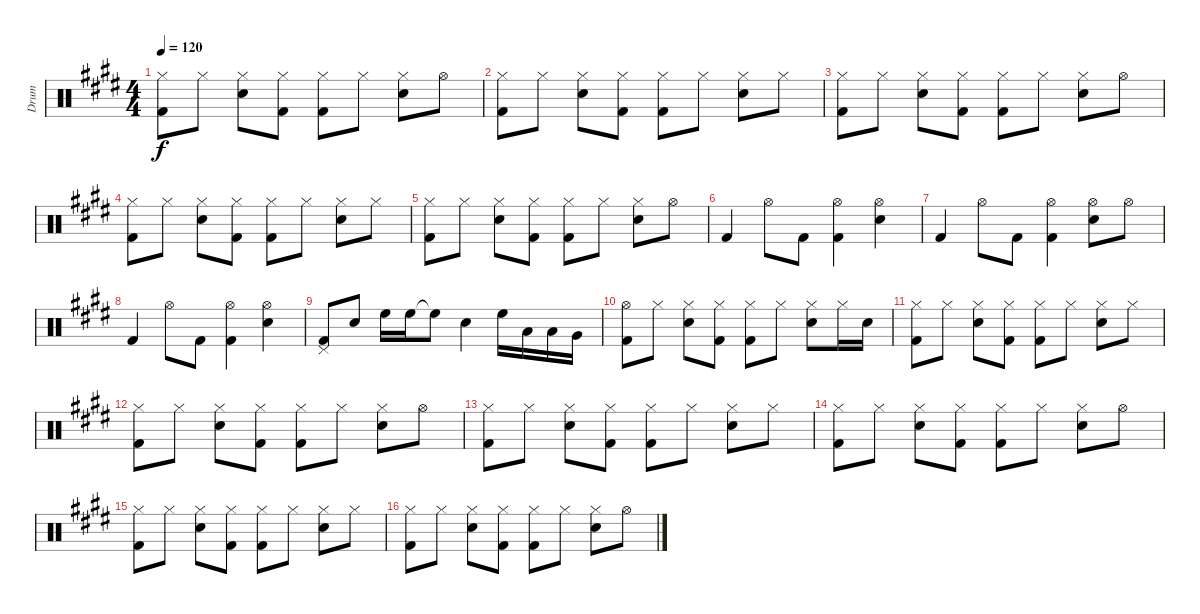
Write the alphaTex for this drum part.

\track ("Drum" "Drum") {instrument percussion}
\staff {score}
\articulation defaults
\ts (4 4)
\tempo 120
\clef neutral
\ks e
("Hi-Hat (closed)" "Kick (hit) 2").8{dy f} "Hi-Hat (closed)".8 ("Hi-Hat (closed)" "Snare (hit) 2").8 ("Hi-Hat (closed)" "Kick (hit) 2").8 ("Hi-Hat (closed)" "Kick (hit) 2").8 "Hi-Hat (closed)".8 ("Hi-Hat (closed)" "Snare (hit) 2").8 "Hi-Hat (open)".8 |
("Hi-Hat (closed)" "Kick (hit) 2").8 "Hi-Hat (closed)".8 ("Hi-Hat (closed)" "Snare (hit) 2").8 ("Hi-Hat (closed)" "Kick (hit) 2").8 ("Hi-Hat (closed)" "Kick (hit) 2").8 "Hi-Hat (closed)".8 ("Hi-Hat (closed)" "Snare (hit) 2").8 "Hi-Hat (closed)".8 |
("Hi-Hat (closed)" "Kick (hit) 2").8 "Hi-Hat (closed)".8 ("Hi-Hat (closed)" "Snare (hit) 2").8 ("Hi-Hat (closed)" "Kick (hit) 2").8 ("Hi-Hat (closed)" "Kick (hit) 2").8 "Hi-Hat (closed)".8 ("Hi-Hat (closed)" "Snare (hit) 2").8 "Hi-Hat (open)".8 |
("Hi-Hat (closed)" "Kick (hit) 2").8 "Hi-Hat (closed)".8 ("Hi-Hat (closed)" "Snare (hit) 2").8 ("Hi-Hat (closed)" "Kick (hit) 2").8 ("Hi-Hat (closed)" "Kick (hit) 2").8 "Hi-Hat (closed)".8 ("Hi-Hat (closed)" "Snare (hit) 2").8 "Hi-Hat (closed)".8 |
("Hi-Hat (closed)" "Kick (hit) 2").8 "Hi-Hat (closed)".8 ("Hi-Hat (closed)" "Snare (hit) 2").8 ("Hi-Hat (closed)" "Kick (hit) 2").8 ("Hi-Hat (closed)" "Kick (hit) 2").8 "Hi-Hat (closed)".8 ("Hi-Hat (closed)" "Snare (hit) 2").8 "Hi-Hat (open)".8 |
"Kick (hit) 2".4 "Hi-Hat (open)".8 "Kick (hit) 2".8 ("Hi-Hat (open)" "Kick (hit) 2").4 ("Hi-Hat (open)" "Snare (hit) 2").4 |
"Kick (hit) 2".4 "Hi-Hat (open)".8 "Kick (hit) 2".8 ("Hi-Hat (open)" "Kick (hit) 2").4 ("Hi-Hat (open)" "Snare (hit) 2").8 "Hi-Hat (open)".8 |
"Kick (hit) 2".4 "Hi-Hat (open)".8 "Kick (hit) 2".8 ("Hi-Hat (open)" "Kick (hit) 2").4 ("Hi-Hat (open)" "Snare (hit) 2").4 |
("Pedal Hi-Hat (hit)" "Kick (hit) 2").8 "Snare (hit) 2".8 "High Floor Tom (hit)".16 "High Floor Tom (hit)".16 "High Floor Tom (hit)"{t}.8 "Snare (hit) 2".4 "High Floor Tom (hit)".16 "Low Tom (hit)".16 "Low Tom (hit)".16 "Very Low Tom (hit)".16 |
("Hi-Hat (open)" "Kick (hit) 2").8 "Hi-Hat (closed)".8 ("Hi-Hat (closed)" "Snare (hit) 2").8 ("Hi-Hat (closed)" "Kick (hit) 2").8 ("Hi-Hat (closed)" "Kick (hit) 2").8 "Hi-Hat (closed)".8 ("Hi-Hat (closed)" "Snare (hit) 2").8 "Hi-Hat (closed)".16 "Snare (hit) 2".16 |
("Hi-Hat (closed)" "Kick (hit) 2").8 "Hi-Hat (closed)".8 ("Hi-Hat (closed)" "Snare (hit) 2").8 ("Hi-Hat (closed)" "Kick (hit) 2").8 ("Hi-Hat (closed)" "Kick (hit) 2").8 "Hi-Hat (closed)".8 ("Hi-Hat (closed)" "Snare (hit) 2").8 "Hi-Hat (closed)".8 |
("Hi-Hat (closed)" "Kick (hit) 2").8 "Hi-Hat (closed)".8 ("Hi-Hat (closed)" "Snare (hit) 2").8 ("Hi-Hat (closed)" "Kick (hit) 2").8 ("Hi-Hat (closed)" "Kick (hit) 2").8 "Hi-Hat (closed)".8 ("Hi-Hat (closed)" "Snare (hit) 2").8 "Hi-Hat (open)".8 |
("Hi-Hat (closed)" "Kick (hit) 2").8 "Hi-Hat (closed)".8 ("Hi-Hat (closed)" "Snare (hit) 2").8 ("Hi-Hat (closed)" "Kick (hit) 2").8 ("Hi-Hat (closed)" "Kick (hit) 2").8 "Hi-Hat (closed)".8 ("Hi-Hat (closed)" "Snare (hit) 2").8 "Hi-Hat (closed)".8 |
("Hi-Hat (closed)" "Kick (hit) 2").8 "Hi-Hat (closed)".8 ("Hi-Hat (closed)" "Snare (hit) 2").8 ("Hi-Hat (closed)" "Kick (hit) 2").8 ("Hi-Hat (closed)" "Kick (hit) 2").8 "Hi-Hat (closed)".8 ("Hi-Hat (closed)" "Snare (hit) 2").8 "Hi-Hat (open)".8 |
("Hi-Hat (closed)" "Kick (hit) 2").8 "Hi-Hat (closed)".8 ("Hi-Hat (closed)" "Snare (hit) 2").8 ("Hi-Hat (closed)" "Kick (hit) 2").8 ("Hi-Hat (closed)" "Kick (hit) 2").8 "Hi-Hat (closed)".8 ("Hi-Hat (closed)" "Snare (hit) 2").8 "Hi-Hat (closed)".8 |
("Hi-Hat (closed)" "Kick (hit) 2").8 "Hi-Hat (closed)".8 ("Hi-Hat (closed)" "Snare (hit) 2").8 ("Hi-Hat (closed)" "Kick (hit) 2").8 ("Hi-Hat (closed)" "Kick (hit) 2").8 "Hi-Hat (closed)".8 ("Hi-Hat (closed)" "Snare (hit) 2").8 "Hi-Hat (open)".8
